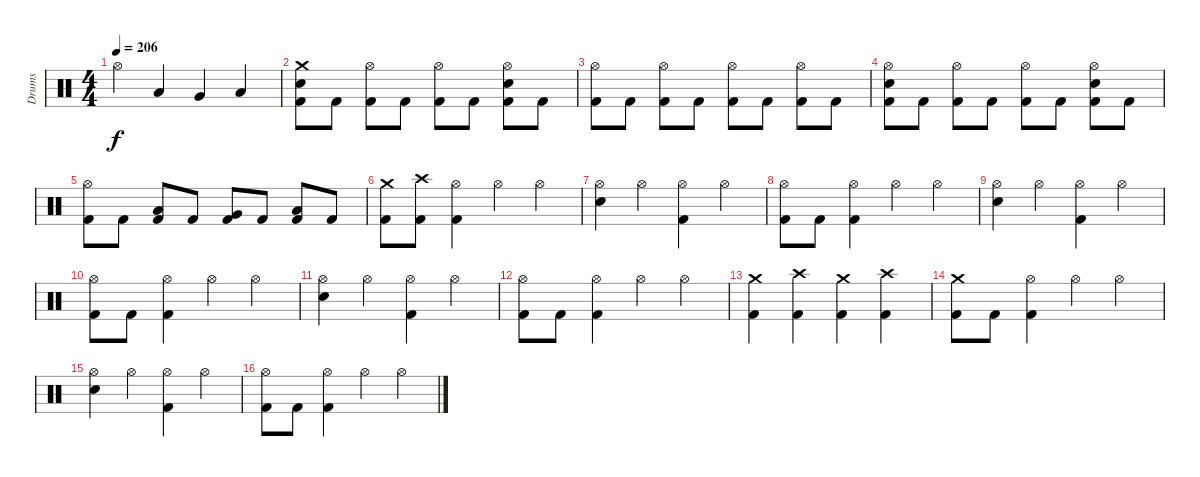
\track ("Drums" "Drums") {instrument percussion}
\staff {score}
\articulation defaults
\ts (4 4)
\tempo 206
\clef neutral
\ks c "Hi-Hat (open)".4{dy f} "Low Tom (hit)".4 "Very Low Tom (hit)".4 "Low Floor Tom (hit)".4
|
("Crash medium (hit)" "Electric Snare (hit)" "Kick (hit) 2").8 "Kick (hit) 2".8 ("Hi-Hat (open)" "Kick (hit) 2").8 "Kick (hit) 2".8 ("Hi-Hat (open)" "Kick (hit) 2").8 "Kick (hit) 2".8 ("Hi-Hat (open)" "Electric Snare (hit)" "Kick (hit) 2").8 "Kick (hit) 2".8 |
("Hi-Hat (open)" "Kick (hit) 2").8 "Kick (hit) 2".8 ("Hi-Hat (open)" "Kick (hit) 2").8 "Kick (hit) 2".8 ("Hi-Hat (open)" "Kick (hit) 2").8 "Kick (hit) 2".8 ("Hi-Hat (open)" "Kick (hit) 2").8 "Kick (hit) 2".8 |
("Hi-Hat (open)" "Electric Snare (hit)" "Kick (hit) 2").8 "Kick (hit) 2".8 ("Hi-Hat (open)" "Kick (hit) 2").8 "Kick (hit) 2".8 ("Hi-Hat (open)" "Kick (hit) 2").8 "Kick (hit) 2".8 ("Hi-Hat (open)" "Electric Snare (hit)" "Kick (hit) 2").8 "Kick (hit) 2".8 |
("Hi-Hat (open)" "Kick (hit) 2").8 "Kick (hit) 2".8 ("Low Tom (hit)" "Kick (hit) 2").8 "Kick (hit) 2".8 ("Very Low Tom (hit)" "Kick (hit) 2").8 "Kick (hit) 2".8 ("Low Floor Tom (hit)" "Kick (hit) 2").8 "Kick (hit) 2".8 |
("Crash medium (hit)" "Kick (hit) 2").8 ("Crash high (hit)" "Kick (hit) 2").8 ("Hi-Hat (open)" "Kick (hit) 2").4 "Hi-Hat (open)".4 "Hi-Hat (open)".4 |
("Hi-Hat (open)" "Electric Snare (hit)").4 "Hi-Hat (open)".4 ("Hi-Hat (open)" "Kick (hit) 2").4 "Hi-Hat (open)".4 |
("Hi-Hat (open)" "Kick (hit) 2").8 "Kick (hit) 2".8 ("Hi-Hat (open)" "Kick (hit) 2").4 "Hi-Hat (open)".4 "Hi-Hat (open)".4 |
("Hi-Hat (open)" "Electric Snare (hit)").4 "Hi-Hat (open)".4 ("Hi-Hat (open)" "Kick (hit) 2").4 "Hi-Hat (open)".4 |
("Hi-Hat (open)" "Kick (hit) 2").8 "Kick (hit) 2".8 ("Hi-Hat (open)" "Kick (hit) 2").4 "Hi-Hat (open)".4 "Hi-Hat (open)".4 |
("Hi-Hat (open)" "Electric Snare (hit)").4 "Hi-Hat (open)".4 ("Hi-Hat (open)" "Kick (hit) 2").4 "Hi-Hat (open)".4 |
("Hi-Hat (open)" "Kick (hit) 2").8 "Kick (hit) 2".8 ("Hi-Hat (open)" "Kick (hit) 2").4 "Hi-Hat (open)".4 "Hi-Hat (open)".4 |
("Crash medium (hit)" "Kick (hit) 2").4 ("Crash high (hit)" "Kick (hit) 2").4 ("Crash medium (hit)" "Kick (hit) 2").4 ("Crash high (hit)" "Kick (hit) 2").4 |
("Crash medium (hit)" "Kick (hit) 2").8 "Kick (hit) 2".8 ("Hi-Hat (open)" "Kick (hit) 2").4 "Hi-Hat (open)".4 "Hi-Hat (open)".4 |
("Hi-Hat (open)" "Electric Snare (hit)").4 "Hi-Hat (open)".4 ("Hi-Hat (open)" "Kick (hit) 2").4 "Hi-Hat (open)".4 |
("Hi-Hat (open)" "Kick (hit) 2").8 "Kick (hit) 2".8 ("Hi-Hat (open)" "Kick (hit) 2").4 "Hi-Hat (open)".4 "Hi-Hat (open)".4
